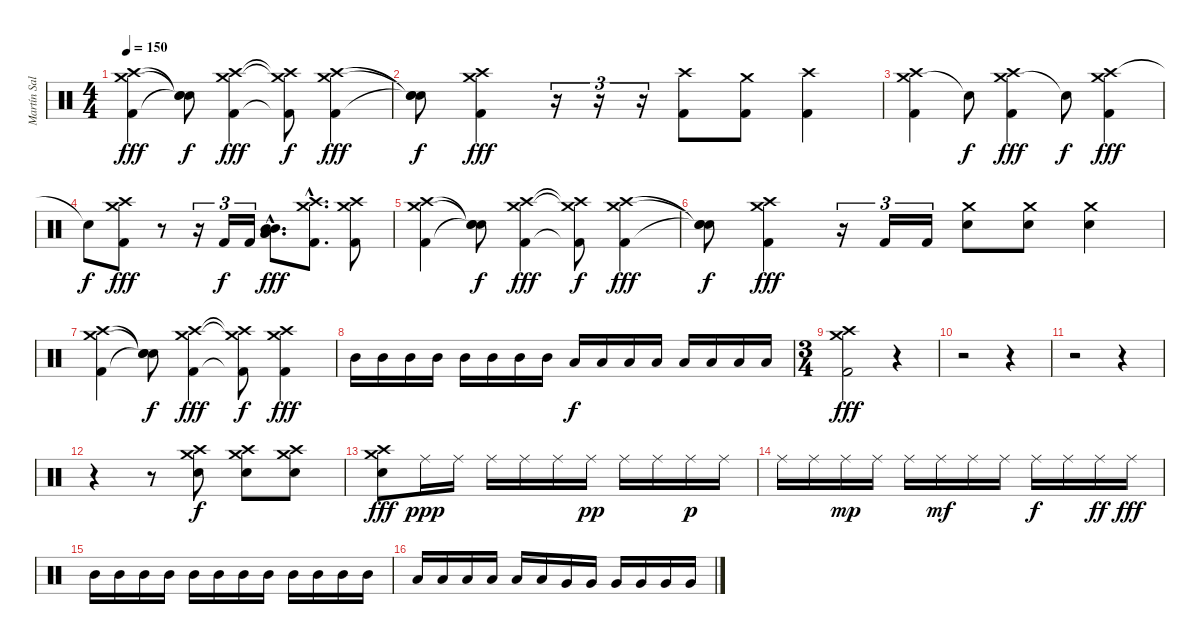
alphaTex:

\track ("Martín Salariato" "Martín Sal") {instrument percussion}
\staff {score}
\articulation defaults
\ts (4 4)
\tempo 150
\clef neutral
\ks c
("Crash medium (hit)" "Crash high (hit)" "Kick (hit) 2").4{dy fff} ("Snare (hit)"{t} "Snare (hit)"{t} "Snare (hit)"{t}).8{dy f} ("Crash medium (hit)" "Crash high (hit)" "Kick (hit) 2").4{dy fff} ("Crash medium (hit)"{t} "Crash high (hit)"{t} "Kick (hit) 2"{t}).8{dy f} ("Crash medium (hit)" "Crash high (hit)" "Kick (hit) 2").4{dy fff} |
("Snare (hit)"{t} "Snare (hit)"{t} "Snare (hit)"{t}).8{dy f} ("Crash medium (hit)" "Crash high (hit)" "Kick (hit) 2").4{dy fff} r.16{tu (3 2)} r.16{tu (3 2)} r.16{tu (3 2)} ("Crash high (hit)" "Kick (hit) 2").8 ("Crash medium (hit)" "Kick (hit) 2").8 ("Crash high (hit)" "Kick (hit) 2").4 |
("Crash medium (hit)" "Crash high (hit)" "Kick (hit) 2").4 "Snare (hit)"{t}.8{dy f} ("Crash medium (hit)" "Crash high (hit)" "Kick (hit) 2").4{dy fff} "Snare (hit)"{t}.8{dy f} ("Crash high (hit)" "Crash medium (hit)" "Kick (hit) 2").4{dy fff} |
"Snare (hit)"{t}.8{dy f} ("Crash medium (hit)" "Crash high (hit)" "Kick (hit) 2").8{dy fff} r.8 r.16{tu (3 2)} "Kick (hit) 2".16{tu (3 2) dy f} "Kick (hit) 2".16{tu (3 2)} ("Low Tom (hit)"{hac} "Low Tom (hit)"{hac} "Mid Tom (hit)"{hac} "Mid Tom (hit)"{hac}).8{d dy fff} ("Crash medium (hit)"{hac} "Crash high (hit)"{hac} "Kick (hit) 2"{hac}).8{d} ("Crash high (hit)" "Crash medium (hit)" "Kick (hit) 2").8 |
("Crash medium (hit)" "Crash high (hit)" "Kick (hit) 2").4 ("Snare (hit)"{t} "Snare (hit)"{t} "Snare (hit)"{t}).8{dy f} ("Crash medium (hit)" "Crash high (hit)" "Kick (hit) 2").4{dy fff} ("Crash medium (hit)"{t} "Crash high (hit)"{t} "Kick (hit) 2"{t}).8{dy f} ("Crash medium (hit)" "Crash high (hit)" "Kick (hit) 2").4{dy fff} |
("Snare (hit)"{t} "Snare (hit)"{t} "Snare (hit)"{t}).8{dy f} ("Crash medium (hit)" "Crash high (hit)" "Kick (hit) 2").4{dy fff} r.16{tu (3 2)} "Kick (hit) 2".16{tu (3 2)} "Kick (hit) 2".16{tu (3 2)} ("Crash medium (hit)" "Snare (hit) 2").8 ("Crash medium (hit)" "Snare (hit) 2").8 ("Crash medium (hit)" "Snare (hit) 2").4 |
("Crash medium (hit)" "Crash high (hit)" "Kick (hit) 2").4 ("Snare (hit)"{t} "Snare (hit)"{t} "Snare (hit)"{t}).8{dy f} ("Crash medium (hit)" "Crash high (hit)" "Kick (hit) 2").4{dy fff} ("Crash medium (hit)"{t} "Crash high (hit)"{t} "Kick (hit) 2"{t}).8{dy f} ("Crash medium (hit)" "Crash high (hit)" "Kick (hit) 2").4{dy fff} |
"Mid Tom (hit)".16 "Mid Tom (hit)".16 "Mid Tom (hit)".16 "Mid Tom (hit)".16 "Mid Tom (hit)".16 "Mid Tom (hit)".16 "Mid Tom (hit)".16 "Mid Tom (hit)".16 "Low Tom (hit)".16{dy f} "Low Tom (hit)".16 "Low Tom (hit)".16 "Low Tom (hit)".16 "Low Tom (hit)".16 "Low Tom (hit)".16 "Low Tom (hit)".16 "Low Tom (hit)".16 |
\ts (3 4)
("Crash high (hit)" "Crash medium (hit)" "Kick (hit) 2").2{dy fff} r.4 |
r.2 r.4 |
r.2 r.4 |
r.4 r.8 ("Crash high (hit)" "Crash medium (hit)" "Snare (hit) 2").8{dy f} ("Crash high (hit)" "Crash medium (hit)" "Snare (hit) 2").8 ("Crash high (hit)" "Crash medium (hit)" "Snare (hit) 2").8 |
("Crash high (hit)" "Crash medium (hit)" "Snare (hit) 2").8{dy fff} "Ride (middle)".16{dy ppp} "Ride (middle)".16 "Ride (middle)".16 "Ride (middle)".16 "Ride (middle)".16 "Ride (middle)".16{dy pp} "Ride (middle)".16 "Ride (middle)".16 "Ride (middle)".16{dy p} "Ride (middle)".16 |
"Ride (middle)".16 "Ride (middle)".16 "Ride (middle)".16{dy mp} "Ride (middle)".16 "Ride (middle)".16 "Ride (middle)".16{dy mf} "Ride (middle)".16 "Ride (middle)".16 "Ride (middle)".16{dy f} "Ride (middle)".16 "Ride (middle)".16{dy ff} "Ride (middle)".16{dy fff} |
"Mid Tom (hit)".16 "Mid Tom (hit)".16 "Mid Tom (hit)".16 "Mid Tom (hit)".16 "Mid Tom (hit)".16 "Mid Tom (hit)".16 "Mid Tom (hit)".16 "Mid Tom (hit)".16 "Mid Tom (hit)".16 "Mid Tom (hit)".16 "Mid Tom (hit)".16 "Mid Tom (hit)".16 |
"Low Tom (hit)".16 "Low Tom (hit)".16 "Low Tom (hit)".16 "Low Tom (hit)".16 "Low Tom (hit)".16 "Low Tom (hit)".16 "Very Low Tom (hit)".16 "Very Low Tom (hit)".16 "Very Low Tom (hit)".16 "Very Low Tom (hit)".16 "Very Low Tom (hit)".16 "Very Low Tom (hit)".16
